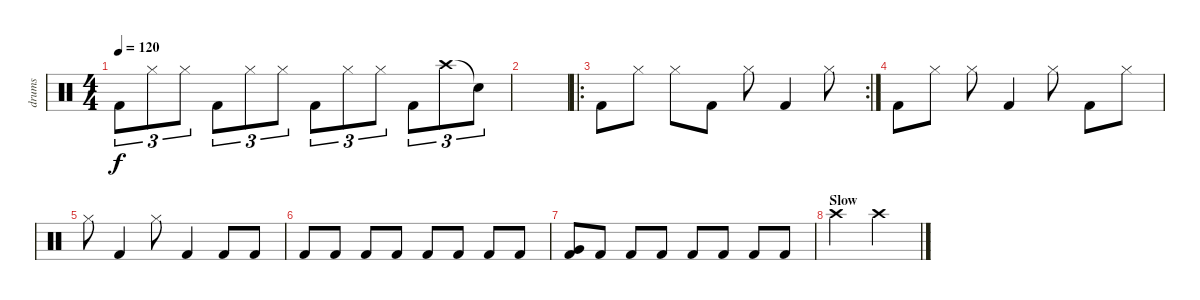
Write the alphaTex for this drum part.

\track ("drums" "drums") {instrument percussion}
\staff {score}
\articulation defaults
\ts (4 4)
\tempo 120
\clef neutral
\ks c "Kick (hit) 2".8{tu (3 2) dy f} "Hi-Hat (closed)".8{tu (3 2)} "Hi-Hat (closed)".8{tu (3 2)} "Kick (hit) 2".8{tu (3 2)} "Hi-Hat (closed)".8{tu (3 2)} "Hi-Hat (closed)".8{tu (3 2)} "Kick (hit) 2".8{tu (3 2)} "Hi-Hat (closed)".8{tu (3 2)} "Hi-Hat (closed)".8{tu (3 2)} "Kick (hit) 2".8{tu (3 2)} "Crash high (hit)".8{tu (3 2)} "Snare (hit)"{t}.8{tu (3 2)}
|
|
\ro
\rc 2 "Kick (hit) 2".8 "Hi-Hat (closed)".8 "Hi-Hat (closed)".8 "Kick (hit) 2".8 "Hi-Hat (closed)".8 "Kick (hit) 2".4 "Hi-Hat (closed)".8
|
"Kick (hit) 2".8 "Hi-Hat (closed)".8 "Hi-Hat (closed)".8 "Kick (hit) 2".4 "Hi-Hat (closed)".8 "Kick (hit) 2".8 "Hi-Hat (closed)".8 |
"Hi-Hat (closed)".8 "Kick (hit) 2".4 "Hi-Hat (closed)".8 "Kick (hit) 2".4 "Kick (hit) 2".8 "Kick (hit) 2".8 |
"Kick (hit) 2".8 "Kick (hit) 2".8 "Kick (hit) 2".8 "Kick (hit) 2".8 "Kick (hit) 2".8 "Kick (hit) 2".8 "Kick (hit) 2".8 "Kick (hit) 2".8 |
("Very Low Tom (hit)" "Kick (hit) 2").8 "Kick (hit) 2".8 "Kick (hit) 2".8 "Kick (hit) 2".8 "Kick (hit) 2".8 "Kick (hit) 2".8 "Kick (hit) 2".8 "Kick (hit) 2".8 |
\section ("" "Slow")
"Crash high (hit)".2 "Crash high (hit)".2
